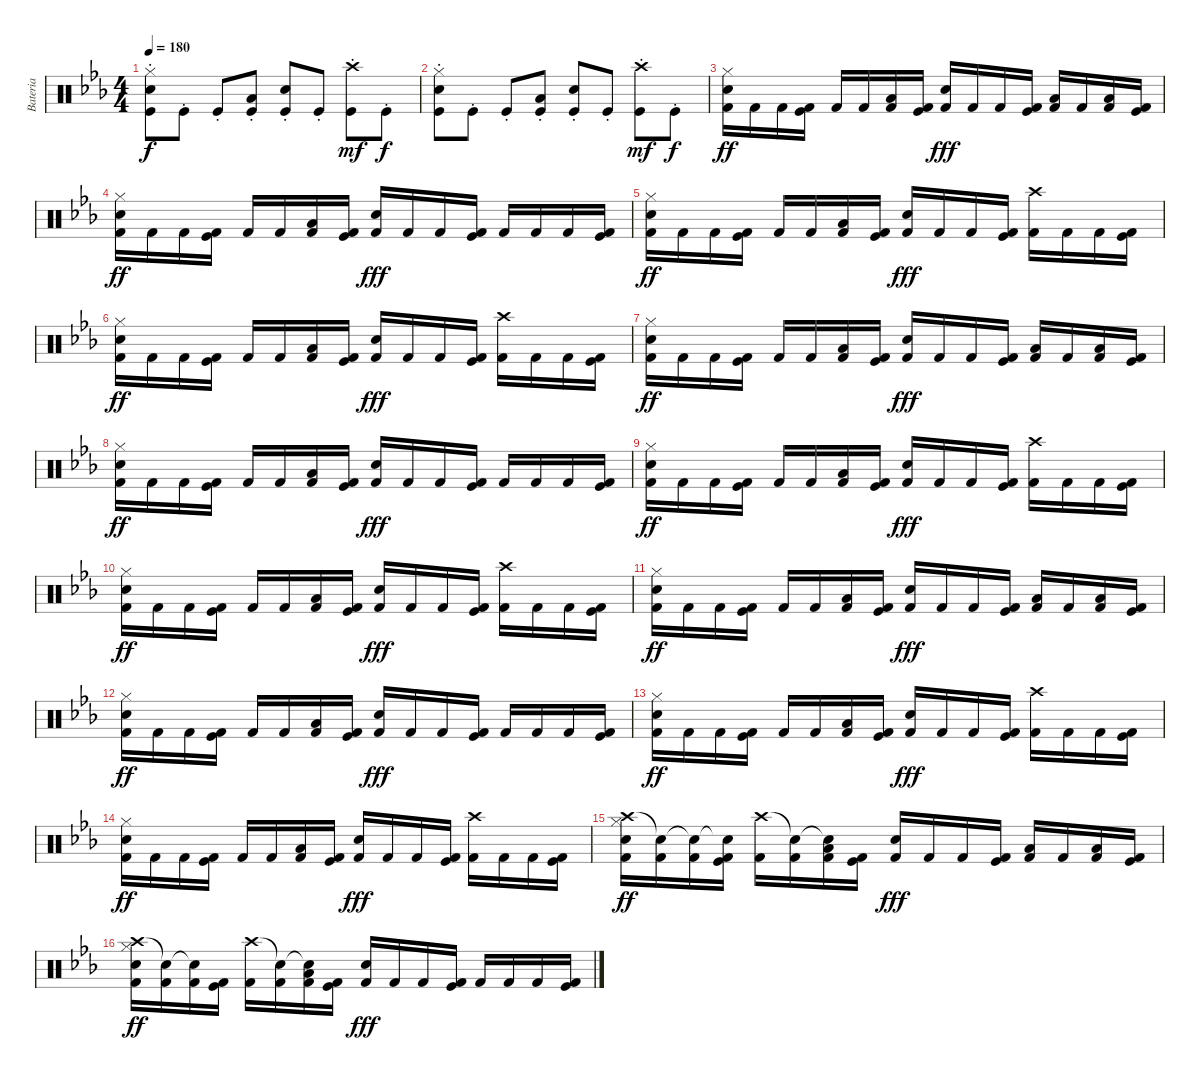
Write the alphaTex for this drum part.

\track ("Bateria" "Bateria") {instrument percussion}
\staff {score}
\articulation defaults
\ts (4 4)
\tempo 180
\clef neutral
\ks eb
("Hi-Hat (closed)"{st} "Snare (hit) 2"{st} "Kick (hit)"{st}).8{dy f} "Kick (hit)"{st}.8 "Kick (hit)"{st}.8 ("Low Tom (hit)"{st} "Kick (hit)"{st}).8 ("Snare (hit) 2"{st} "Kick (hit)"{st}).8 "Kick (hit)"{st}.8 ("Crash high (hit)"{st} "Kick (hit)"{st}).8{dy mf} "Kick (hit)"{st}.8{dy f} |
("Hi-Hat (closed)"{st} "Snare (hit) 2"{st} "Kick (hit)"{st}).8 "Kick (hit)"{st}.8 "Kick (hit)"{st}.8 ("Low Tom (hit)"{st} "Kick (hit)"{st}).8 ("Snare (hit) 2"{st} "Kick (hit)"{st}).8 "Kick (hit)"{st}.8 ("Crash high (hit)"{st} "Kick (hit)"{st}).8{dy mf} "Kick (hit)"{st}.8{dy f} |
("Hi-Hat (closed)" "Snare (hit) 2" "Kick (hit) 2").16{dy ff} "Kick (hit) 2".16 "Kick (hit) 2".16 ("Kick (hit)" "Kick (hit) 2").16 "Kick (hit) 2".16 "Kick (hit) 2".16 ("Low Tom (hit)" "Kick (hit) 2").16 ("Kick (hit)" "Kick (hit) 2").16 ("Snare (hit) 2" "Kick (hit) 2").16{dy fff} "Kick (hit) 2".16 "Kick (hit) 2".16 ("Kick (hit)" "Kick (hit) 2").16 ("Low Tom (hit)" "Kick (hit) 2").16 "Kick (hit) 2".16 ("Low Tom (hit)" "Kick (hit) 2").16 ("Kick (hit)" "Kick (hit) 2").16 |
("Hi-Hat (closed)" "Snare (hit) 2" "Kick (hit) 2").16{dy ff} "Kick (hit) 2".16 "Kick (hit) 2".16 ("Kick (hit)" "Kick (hit) 2").16 "Kick (hit) 2".16 "Kick (hit) 2".16 ("Low Tom (hit)" "Kick (hit) 2").16 ("Kick (hit)" "Kick (hit) 2").16 ("Snare (hit) 2" "Kick (hit) 2").16{dy fff} "Kick (hit) 2".16 "Kick (hit) 2".16 ("Kick (hit)" "Kick (hit) 2").16 "Kick (hit) 2".16 "Kick (hit) 2".16 "Kick (hit) 2".16 ("Kick (hit)" "Kick (hit) 2").16 |
("Hi-Hat (closed)" "Snare (hit) 2" "Kick (hit) 2").16{dy ff} "Kick (hit) 2".16 "Kick (hit) 2".16 ("Kick (hit)" "Kick (hit) 2").16 "Kick (hit) 2".16 "Kick (hit) 2".16 ("Low Tom (hit)" "Kick (hit) 2").16 ("Kick (hit)" "Kick (hit) 2").16 ("Snare (hit) 2" "Kick (hit) 2").16{dy fff} "Kick (hit) 2".16 "Kick (hit) 2".16 ("Kick (hit)" "Kick (hit) 2").16 ("Crash high (hit)" "Kick (hit) 2").16 "Kick (hit) 2".16 "Kick (hit) 2".16 ("Kick (hit)" "Kick (hit) 2").16 |
("Hi-Hat (closed)" "Snare (hit) 2" "Kick (hit) 2").16{dy ff} "Kick (hit) 2".16 "Kick (hit) 2".16 ("Kick (hit)" "Kick (hit) 2").16 "Kick (hit) 2".16 "Kick (hit) 2".16 ("Low Tom (hit)" "Kick (hit) 2").16 ("Kick (hit)" "Kick (hit) 2").16 ("Snare (hit) 2" "Kick (hit) 2").16{dy fff} "Kick (hit) 2".16 "Kick (hit) 2".16 ("Kick (hit)" "Kick (hit) 2").16 ("Crash high (hit)" "Kick (hit) 2").16 "Kick (hit) 2".16 "Kick (hit) 2".16 ("Kick (hit)" "Kick (hit) 2").16 |
("Hi-Hat (closed)" "Snare (hit) 2" "Kick (hit) 2").16{dy ff} "Kick (hit) 2".16 "Kick (hit) 2".16 ("Kick (hit)" "Kick (hit) 2").16 "Kick (hit) 2".16 "Kick (hit) 2".16 ("Low Tom (hit)" "Kick (hit) 2").16 ("Kick (hit)" "Kick (hit) 2").16 ("Snare (hit) 2" "Kick (hit) 2").16{dy fff} "Kick (hit) 2".16 "Kick (hit) 2".16 ("Kick (hit)" "Kick (hit) 2").16 ("Low Tom (hit)" "Kick (hit) 2").16 "Kick (hit) 2".16 ("Low Tom (hit)" "Kick (hit) 2").16 ("Kick (hit)" "Kick (hit) 2").16 |
("Hi-Hat (closed)" "Snare (hit) 2" "Kick (hit) 2").16{dy ff} "Kick (hit) 2".16 "Kick (hit) 2".16 ("Kick (hit)" "Kick (hit) 2").16 "Kick (hit) 2".16 "Kick (hit) 2".16 ("Low Tom (hit)" "Kick (hit) 2").16 ("Kick (hit)" "Kick (hit) 2").16 ("Snare (hit) 2" "Kick (hit) 2").16{dy fff} "Kick (hit) 2".16 "Kick (hit) 2".16 ("Kick (hit)" "Kick (hit) 2").16 "Kick (hit) 2".16 "Kick (hit) 2".16 "Kick (hit) 2".16 ("Kick (hit)" "Kick (hit) 2").16 |
("Hi-Hat (closed)" "Snare (hit) 2" "Kick (hit) 2").16{dy ff} "Kick (hit) 2".16 "Kick (hit) 2".16 ("Kick (hit)" "Kick (hit) 2").16 "Kick (hit) 2".16 "Kick (hit) 2".16 ("Low Tom (hit)" "Kick (hit) 2").16 ("Kick (hit)" "Kick (hit) 2").16 ("Snare (hit) 2" "Kick (hit) 2").16{dy fff} "Kick (hit) 2".16 "Kick (hit) 2".16 ("Kick (hit)" "Kick (hit) 2").16 ("Crash high (hit)" "Kick (hit) 2").16 "Kick (hit) 2".16 "Kick (hit) 2".16 ("Kick (hit)" "Kick (hit) 2").16 |
("Hi-Hat (closed)" "Snare (hit) 2" "Kick (hit) 2").16{dy ff} "Kick (hit) 2".16 "Kick (hit) 2".16 ("Kick (hit)" "Kick (hit) 2").16 "Kick (hit) 2".16 "Kick (hit) 2".16 ("Low Tom (hit)" "Kick (hit) 2").16 ("Kick (hit)" "Kick (hit) 2").16 ("Snare (hit) 2" "Kick (hit) 2").16{dy fff} "Kick (hit) 2".16 "Kick (hit) 2".16 ("Kick (hit)" "Kick (hit) 2").16 ("Crash high (hit)" "Kick (hit) 2").16 "Kick (hit) 2".16 "Kick (hit) 2".16 ("Kick (hit)" "Kick (hit) 2").16 |
("Hi-Hat (closed)" "Snare (hit) 2" "Kick (hit) 2").16{dy ff} "Kick (hit) 2".16 "Kick (hit) 2".16 ("Kick (hit)" "Kick (hit) 2").16 "Kick (hit) 2".16 "Kick (hit) 2".16 ("Low Tom (hit)" "Kick (hit) 2").16 ("Kick (hit)" "Kick (hit) 2").16 ("Snare (hit) 2" "Kick (hit) 2").16{dy fff} "Kick (hit) 2".16 "Kick (hit) 2".16 ("Kick (hit)" "Kick (hit) 2").16 ("Low Tom (hit)" "Kick (hit) 2").16 "Kick (hit) 2".16 ("Low Tom (hit)" "Kick (hit) 2").16 ("Kick (hit)" "Kick (hit) 2").16 |
("Hi-Hat (closed)" "Snare (hit) 2" "Kick (hit) 2").16{dy ff} "Kick (hit) 2".16 "Kick (hit) 2".16 ("Kick (hit)" "Kick (hit) 2").16 "Kick (hit) 2".16 "Kick (hit) 2".16 ("Low Tom (hit)" "Kick (hit) 2").16 ("Kick (hit)" "Kick (hit) 2").16 ("Snare (hit) 2" "Kick (hit) 2").16{dy fff} "Kick (hit) 2".16 "Kick (hit) 2".16 ("Kick (hit)" "Kick (hit) 2").16 "Kick (hit) 2".16 "Kick (hit) 2".16 "Kick (hit) 2".16 ("Kick (hit)" "Kick (hit) 2").16 |
("Hi-Hat (closed)" "Snare (hit) 2" "Kick (hit) 2").16{dy ff} "Kick (hit) 2".16 "Kick (hit) 2".16 ("Kick (hit)" "Kick (hit) 2").16 "Kick (hit) 2".16 "Kick (hit) 2".16 ("Low Tom (hit)" "Kick (hit) 2").16 ("Kick (hit)" "Kick (hit) 2").16 ("Snare (hit) 2" "Kick (hit) 2").16{dy fff} "Kick (hit) 2".16 "Kick (hit) 2".16 ("Kick (hit)" "Kick (hit) 2").16 ("Crash high (hit)" "Kick (hit) 2").16 "Kick (hit) 2".16 "Kick (hit) 2".16 ("Kick (hit)" "Kick (hit) 2").16 |
("Hi-Hat (closed)" "Snare (hit) 2" "Kick (hit) 2").16{dy ff} "Kick (hit) 2".16 "Kick (hit) 2".16 ("Kick (hit)" "Kick (hit) 2").16 "Kick (hit) 2".16 "Kick (hit) 2".16 ("Low Tom (hit)" "Kick (hit) 2").16 ("Kick (hit)" "Kick (hit) 2").16 ("Snare (hit) 2" "Kick (hit) 2").16{dy fff} "Kick (hit) 2".16 "Kick (hit) 2".16 ("Kick (hit)" "Kick (hit) 2").16 ("Crash high (hit)" "Kick (hit) 2").16 "Kick (hit) 2".16 "Kick (hit) 2".16 ("Kick (hit)" "Kick (hit) 2").16 |
("Crash high (hit)" "Hi-Hat (closed)" "Snare (hit) 2" "Kick (hit) 2").16{dy ff} ("Snare (hit)"{t} "Kick (hit) 2").16 ("Snare (hit)"{t} "Kick (hit) 2").16 ("Snare (hit)"{t} "Kick (hit)" "Kick (hit) 2").16 ("Crash high (hit)" "Kick (hit) 2").16 ("Snare (hit)"{t} "Kick (hit) 2").16 ("Snare (hit)"{t} "Low Tom (hit)" "Kick (hit) 2").16 ("Kick (hit)" "Kick (hit) 2").16 ("Snare (hit) 2" "Kick (hit) 2").16{dy fff} "Kick (hit) 2".16 "Kick (hit) 2".16 ("Kick (hit)" "Kick (hit) 2").16 ("Low Tom (hit)" "Kick (hit) 2").16 "Kick (hit) 2".16 ("Low Tom (hit)" "Kick (hit) 2").16 ("Kick (hit)" "Kick (hit) 2").16 |
("Crash high (hit)" "Hi-Hat (closed)" "Snare (hit) 2" "Kick (hit) 2").16{dy ff} ("Snare (hit)"{t} "Kick (hit) 2").16 ("Snare (hit)"{t} "Kick (hit) 2").16 ("Kick (hit)" "Kick (hit) 2").16 ("Crash high (hit)" "Kick (hit) 2").16 ("Snare (hit)"{t} "Kick (hit) 2").16 ("Snare (hit)"{t} "Low Tom (hit)" "Kick (hit) 2").16 ("Kick (hit)" "Kick (hit) 2").16 ("Snare (hit) 2" "Kick (hit) 2").16{dy fff} "Kick (hit) 2".16 "Kick (hit) 2".16 ("Kick (hit)" "Kick (hit) 2").16 "Kick (hit) 2".16 "Kick (hit) 2".16 "Kick (hit) 2".16 ("Kick (hit)" "Kick (hit) 2").16
